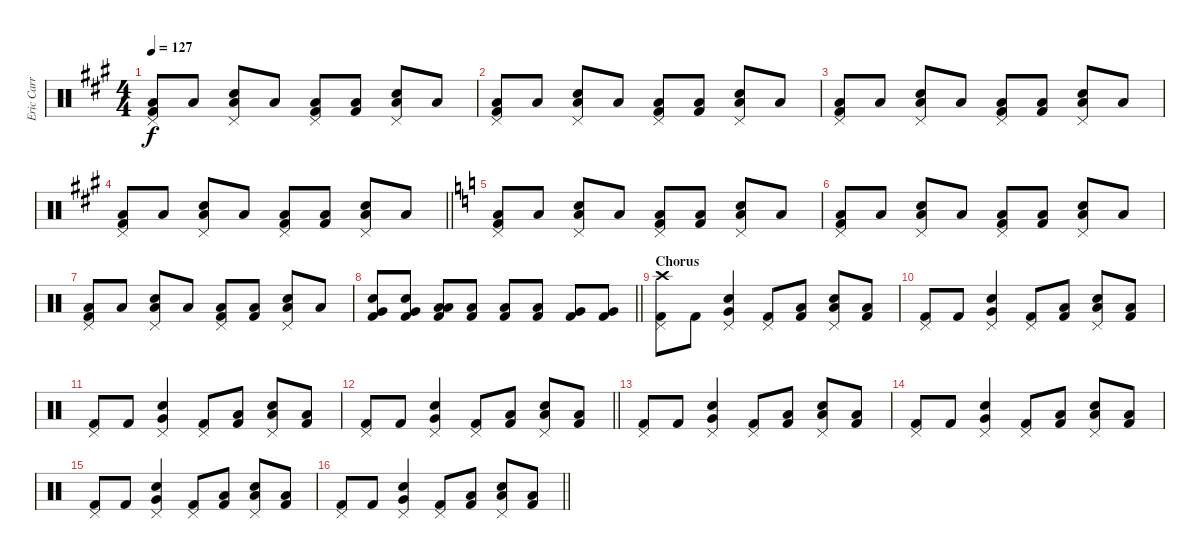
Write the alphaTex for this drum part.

\track ("Eric Carr (Drums)" "Eric Carr ") {instrument percussion}
\staff {score}
\articulation defaults
\ts (4 4)
\tempo 127
\clef neutral
\ks a
("Pedal Hi-Hat (hit)" "Low Tom (hit)" "Kick (hit) 2").8{dy f} "Low Tom (hit)".8 ("Pedal Hi-Hat (hit)" "Low Tom (hit)" "Snare (hit) 2").8 "Low Tom (hit)".8 ("Pedal Hi-Hat (hit)" "Low Tom (hit)" "Kick (hit) 2").8 ("Low Tom (hit)" "Kick (hit) 2").8 ("Pedal Hi-Hat (hit)" "Low Tom (hit)" "Snare (hit) 2").8 "Low Tom (hit)".8 |
("Pedal Hi-Hat (hit)" "Low Tom (hit)" "Kick (hit) 2").8 "Low Tom (hit)".8 ("Pedal Hi-Hat (hit)" "Low Tom (hit)" "Snare (hit) 2").8 "Low Tom (hit)".8 ("Pedal Hi-Hat (hit)" "Low Tom (hit)" "Kick (hit) 2").8 ("Low Tom (hit)" "Kick (hit) 2").8 ("Pedal Hi-Hat (hit)" "Low Tom (hit)" "Snare (hit) 2").8 "Low Tom (hit)".8 |
("Pedal Hi-Hat (hit)" "Low Tom (hit)" "Kick (hit) 2").8 "Low Tom (hit)".8 ("Pedal Hi-Hat (hit)" "Low Tom (hit)" "Snare (hit) 2").8 "Low Tom (hit)".8 ("Pedal Hi-Hat (hit)" "Low Tom (hit)" "Kick (hit) 2").8 ("Low Tom (hit)" "Kick (hit) 2").8 ("Pedal Hi-Hat (hit)" "Low Tom (hit)" "Snare (hit) 2").8 "Low Tom (hit)".8 |
\barLineRight lightlight
("Pedal Hi-Hat (hit)" "Low Tom (hit)" "Kick (hit) 2").8 "Low Tom (hit)".8 ("Pedal Hi-Hat (hit)" "Low Tom (hit)" "Snare (hit) 2").8 "Low Tom (hit)".8 ("Pedal Hi-Hat (hit)" "Low Tom (hit)" "Kick (hit) 2").8 ("Low Tom (hit)" "Kick (hit) 2").8 ("Pedal Hi-Hat (hit)" "Low Tom (hit)" "Snare (hit) 2").8 "Low Tom (hit)".8 |
\ks c
("Pedal Hi-Hat (hit)" "Low Tom (hit)" "Kick (hit) 2").8 "Low Tom (hit)".8 ("Pedal Hi-Hat (hit)" "Low Tom (hit)" "Snare (hit) 2").8 "Low Tom (hit)".8 ("Pedal Hi-Hat (hit)" "Low Tom (hit)" "Kick (hit) 2").8 ("Low Tom (hit)" "Kick (hit) 2").8 ("Pedal Hi-Hat (hit)" "Low Tom (hit)" "Snare (hit) 2").8 "Low Tom (hit)".8 |
("Pedal Hi-Hat (hit)" "Low Tom (hit)" "Kick (hit) 2").8 "Low Tom (hit)".8 ("Pedal Hi-Hat (hit)" "Low Tom (hit)" "Snare (hit) 2").8 "Low Tom (hit)".8 ("Pedal Hi-Hat (hit)" "Low Tom (hit)" "Kick (hit) 2").8 ("Low Tom (hit)" "Kick (hit) 2").8 ("Pedal Hi-Hat (hit)" "Low Tom (hit)" "Snare (hit) 2").8 "Low Tom (hit)".8 |
("Pedal Hi-Hat (hit)" "Low Tom (hit)" "Kick (hit) 2").8 "Low Tom (hit)".8 ("Pedal Hi-Hat (hit)" "Low Tom (hit)" "Snare (hit) 2").8 "Low Tom (hit)".8 ("Pedal Hi-Hat (hit)" "Low Tom (hit)" "Kick (hit) 2").8 ("Low Tom (hit)" "Kick (hit) 2").8 ("Pedal Hi-Hat (hit)" "Low Tom (hit)" "Snare (hit) 2").8 "Low Tom (hit)".8 |
\barLineRight lightlight
("Snare (hit) 2" "Very Low Tom (hit)" "Kick (hit) 2").8 ("Snare (hit) 2" "Very Low Tom (hit)" "Kick (hit) 2").8 ("Low Tom (hit)" "Low Tom (hit)" "Kick (hit) 2").8 ("Low Tom (hit)" "Kick (hit) 2").8 ("Low Floor Tom (hit)" "Kick (hit) 2").8 ("Low Floor Tom (hit)" "Kick (hit) 2").8 ("Very Low Tom (hit)" "Kick (hit) 2").8 ("Very Low Tom (hit)" "Kick (hit) 2").8 |
\section ("" "Chorus")
("Crash high (hit)" "Pedal Hi-Hat (hit)" "Kick (hit) 2").8 "Kick (hit) 2".8 ("Pedal Hi-Hat (hit)" "Very Low Tom (hit)" "Snare (hit) 2").4 ("Pedal Hi-Hat (hit)" "Kick (hit) 2").8 ("Low Tom (hit)" "Kick (hit) 2").8 ("Pedal Hi-Hat (hit)" "Low Floor Tom (hit)" "Snare (hit) 2").8 ("Low Tom (hit)" "Kick (hit) 2").8 |
("Pedal Hi-Hat (hit)" "Kick (hit) 2").8 "Kick (hit) 2".8 ("Pedal Hi-Hat (hit)" "Very Low Tom (hit)" "Snare (hit) 2").4 ("Pedal Hi-Hat (hit)" "Kick (hit) 2").8 ("Low Tom (hit)" "Kick (hit) 2").8 ("Pedal Hi-Hat (hit)" "Low Floor Tom (hit)" "Snare (hit) 2").8 ("Low Tom (hit)" "Kick (hit) 2").8 |
("Pedal Hi-Hat (hit)" "Kick (hit) 2").8 "Kick (hit) 2".8 ("Pedal Hi-Hat (hit)" "Very Low Tom (hit)" "Snare (hit) 2").4 ("Pedal Hi-Hat (hit)" "Kick (hit) 2").8 ("Low Tom (hit)" "Kick (hit) 2").8 ("Pedal Hi-Hat (hit)" "Low Floor Tom (hit)" "Snare (hit) 2").8 ("Low Tom (hit)" "Kick (hit) 2").8 |
\barLineRight lightlight
("Pedal Hi-Hat (hit)" "Kick (hit) 2").8 "Kick (hit) 2".8 ("Pedal Hi-Hat (hit)" "Very Low Tom (hit)" "Snare (hit) 2").4 ("Pedal Hi-Hat (hit)" "Kick (hit) 2").8 ("Low Tom (hit)" "Kick (hit) 2").8 ("Pedal Hi-Hat (hit)" "Low Floor Tom (hit)" "Snare (hit) 2").8 ("Low Tom (hit)" "Kick (hit) 2").8 |
("Pedal Hi-Hat (hit)" "Kick (hit) 2").8 "Kick (hit) 2".8 ("Pedal Hi-Hat (hit)" "Very Low Tom (hit)" "Snare (hit) 2").4 ("Pedal Hi-Hat (hit)" "Kick (hit) 2").8 ("Low Tom (hit)" "Kick (hit) 2").8 ("Pedal Hi-Hat (hit)" "Low Floor Tom (hit)" "Snare (hit) 2").8 ("Low Tom (hit)" "Kick (hit) 2").8 |
("Pedal Hi-Hat (hit)" "Kick (hit) 2").8 "Kick (hit) 2".8 ("Pedal Hi-Hat (hit)" "Very Low Tom (hit)" "Snare (hit) 2").4 ("Pedal Hi-Hat (hit)" "Kick (hit) 2").8 ("Low Tom (hit)" "Kick (hit) 2").8 ("Pedal Hi-Hat (hit)" "Low Floor Tom (hit)" "Snare (hit) 2").8 ("Low Tom (hit)" "Kick (hit) 2").8 |
("Pedal Hi-Hat (hit)" "Kick (hit) 2").8 "Kick (hit) 2".8 ("Pedal Hi-Hat (hit)" "Very Low Tom (hit)" "Snare (hit) 2").4 ("Pedal Hi-Hat (hit)" "Kick (hit) 2").8 ("Low Tom (hit)" "Kick (hit) 2").8 ("Pedal Hi-Hat (hit)" "Low Floor Tom (hit)" "Snare (hit) 2").8 ("Low Tom (hit)" "Kick (hit) 2").8 |
\barLineRight lightlight
("Pedal Hi-Hat (hit)" "Kick (hit) 2").8 "Kick (hit) 2".8 ("Pedal Hi-Hat (hit)" "Very Low Tom (hit)" "Snare (hit) 2").4 ("Pedal Hi-Hat (hit)" "Kick (hit) 2").8 ("Low Tom (hit)" "Kick (hit) 2").8 ("Pedal Hi-Hat (hit)" "Low Floor Tom (hit)" "Snare (hit) 2").8 ("Low Tom (hit)" "Kick (hit) 2").8
